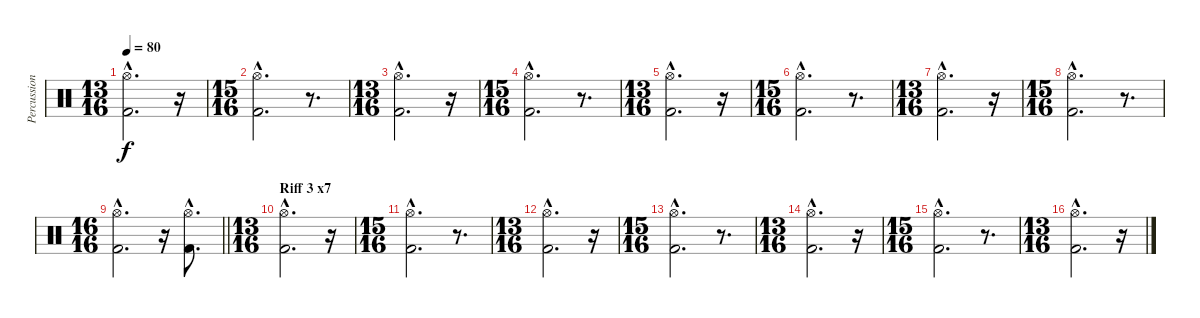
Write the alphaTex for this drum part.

\track ("Percussion" "Percussion") {instrument percussion}
\staff {score}
\articulation defaults
\ts (13 16)
\section ("" "")
\tempo 80
\clef neutral
\ks c
("Hi-Hat (open)"{hac} "Kick (hit) 2"{hac}).2{d dy f} r.16 |
\ts (15 16)
("Hi-Hat (open)"{hac} "Kick (hit) 2"{hac}).2{d} r.8{d} |
\ts (13 16)
("Hi-Hat (open)"{hac} "Kick (hit) 2"{hac}).2{d} r.16 |
\ts (15 16)
("Hi-Hat (open)"{hac} "Kick (hit) 2"{hac}).2{d} r.8{d} |
\ts (13 16)
("Hi-Hat (open)"{hac} "Kick (hit) 2"{hac}).2{d} r.16 |
\ts (15 16)
("Hi-Hat (open)"{hac} "Kick (hit) 2"{hac}).2{d} r.8{d} |
\ts (13 16)
("Hi-Hat (open)"{hac} "Kick (hit) 2"{hac}).2{d} r.16 |
\ts (15 16)
("Hi-Hat (open)"{hac} "Kick (hit) 2"{hac}).2{d} r.8{d} |
\ts (16 16)
\barLineRight lightlight
("Hi-Hat (open)"{hac} "Kick (hit) 2"{hac}).2{d} r.16 ("Hi-Hat (open)"{hac} "Kick (hit) 2"{hac}).8{d} |
\ts (13 16)
\section ("" "Riff 3 x7")
("Hi-Hat (open)"{hac} "Kick (hit) 2"{hac}).2{d} r.16 |
\ts (15 16)
("Hi-Hat (open)"{hac} "Kick (hit) 2"{hac}).2{d} r.8{d} |
\ts (13 16)
("Hi-Hat (open)"{hac} "Kick (hit) 2"{hac}).2{d} r.16 |
\ts (15 16)
("Hi-Hat (open)"{hac} "Kick (hit) 2"{hac}).2{d} r.8{d} |
\ts (13 16)
("Hi-Hat (open)"{hac} "Kick (hit) 2"{hac}).2{d} r.16 |
\ts (15 16)
("Hi-Hat (open)"{hac} "Kick (hit) 2"{hac}).2{d} r.8{d} |
\ts (13 16)
("Hi-Hat (open)"{hac} "Kick (hit) 2"{hac}).2{d} r.16
